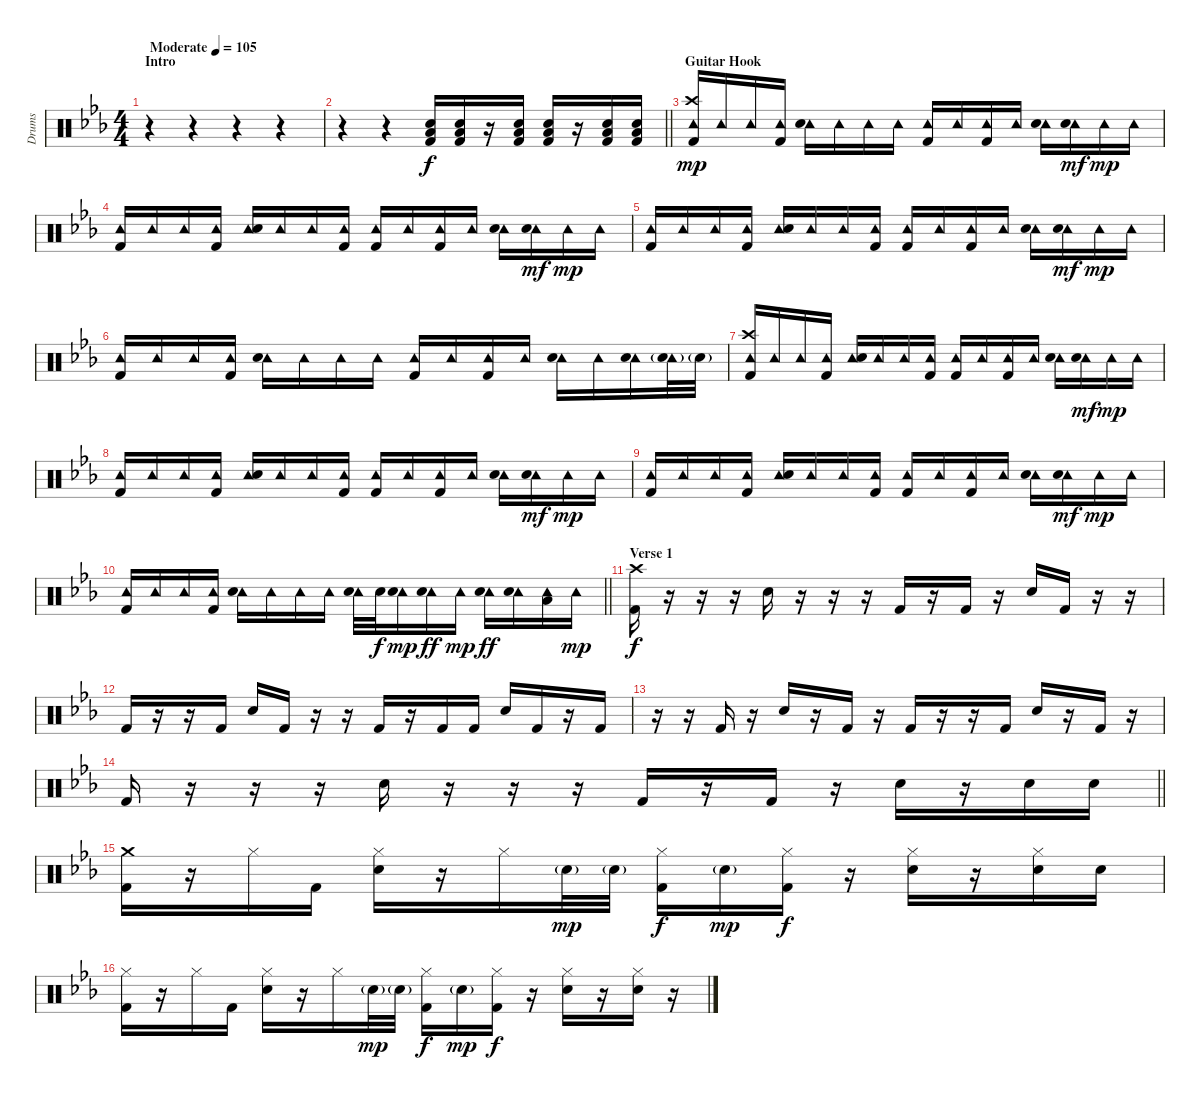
\track ("Drums" "Drums") {instrument percussion}
\staff {score}
\articulation defaults
\ts (4 4)
\section ("" "Intro")
\tempo (105 "Moderate")
\clef neutral
\ks eb
r.4{dy f} r.4 r.4 r.4 |
\barLineRight lightlight
r.4 r.4 ("Low Tom (hit)" "Electric Snare (hit)" "Kick (hit) 2").16 ("Low Tom (hit)" "Electric Snare (hit)" "Kick (hit) 2").16 r.16 ("Low Tom (hit)" "Electric Snare (hit)" "Kick (hit) 2").16 ("Low Tom (hit)" "Electric Snare (hit)" "Kick (hit) 2").16 r.16 ("Low Tom (hit)" "Electric Snare (hit)" "Kick (hit) 2").16 ("Low Tom (hit)" "Electric Snare (hit)" "Kick (hit) 2").16 |
\section ("" "Guitar Hook")
("Crash high (hit)" "Tambourine (hit)" "Kick (hit) 2").16{dy mp} "Tambourine (hit)".16 "Tambourine (hit)".16 ("Tambourine (hit)" "Kick (hit) 2").16 ("Tambourine (hit)" "Electric Snare (hit)").16 "Tambourine (hit)".16 "Tambourine (hit)".16 "Tambourine (hit)".16 ("Tambourine (hit)" "Kick (hit) 2").16 "Tambourine (hit)".16 ("Tambourine (hit)" "Kick (hit) 2").16 "Tambourine (hit)".16 ("Tambourine (hit)" "Electric Snare (hit)").16 ("Tambourine (hit)" "Electric Snare (hit)").16{dy mf} "Tambourine (hit)".16{dy mp} "Tambourine (hit)".16 |
("Tambourine (hit)" "Kick (hit) 2").16 "Tambourine (hit)".16 "Tambourine (hit)".16 ("Tambourine (hit)" "Kick (hit) 2").16 ("Tambourine (hit)" "Electric Snare (hit)").16 "Tambourine (hit)".16 "Tambourine (hit)".16 ("Tambourine (hit)" "Kick (hit) 2").16 ("Tambourine (hit)" "Kick (hit) 2").16 "Tambourine (hit)".16 ("Tambourine (hit)" "Kick (hit) 2").16 "Tambourine (hit)".16 ("Tambourine (hit)" "Electric Snare (hit)").16 ("Tambourine (hit)" "Electric Snare (hit)").16{dy mf} "Tambourine (hit)".16{dy mp} "Tambourine (hit)".16 |
("Tambourine (hit)" "Kick (hit) 2").16 "Tambourine (hit)".16 "Tambourine (hit)".16 ("Tambourine (hit)" "Kick (hit) 2").16 ("Tambourine (hit)" "Electric Snare (hit)").16 "Tambourine (hit)".16 "Tambourine (hit)".16 ("Tambourine (hit)" "Kick (hit) 2").16 ("Tambourine (hit)" "Kick (hit) 2").16 "Tambourine (hit)".16 ("Tambourine (hit)" "Kick (hit) 2").16 "Tambourine (hit)".16 ("Tambourine (hit)" "Electric Snare (hit)").16 ("Tambourine (hit)" "Electric Snare (hit)").16{dy mf} "Tambourine (hit)".16{dy mp} "Tambourine (hit)".16 |
("Tambourine (hit)" "Kick (hit) 2").16 "Tambourine (hit)".16 "Tambourine (hit)".16 ("Tambourine (hit)" "Kick (hit) 2").16 ("Tambourine (hit)" "Electric Snare (hit)").16 "Tambourine (hit)".16 "Tambourine (hit)".16 "Tambourine (hit)".16 ("Tambourine (hit)" "Kick (hit) 2").16 "Tambourine (hit)".16 ("Tambourine (hit)" "Kick (hit) 2").16 "Tambourine (hit)".16 ("Tambourine (hit)" "Electric Snare (hit)").16 "Tambourine (hit)".16 ("Tambourine (hit)" "Electric Snare (hit)").16 ("Tambourine (hit)" "Electric Snare (hit)"{g}).32 "Electric Snare (hit)"{g}.32 |
("Crash high (hit)" "Tambourine (hit)" "Kick (hit) 2").16 "Tambourine (hit)".16 "Tambourine (hit)".16 ("Tambourine (hit)" "Kick (hit) 2").16 ("Tambourine (hit)" "Electric Snare (hit)").16 "Tambourine (hit)".16 "Tambourine (hit)".16 ("Tambourine (hit)" "Kick (hit) 2").16 ("Tambourine (hit)" "Kick (hit) 2").16 "Tambourine (hit)".16 ("Tambourine (hit)" "Kick (hit) 2").16 "Tambourine (hit)".16 ("Tambourine (hit)" "Electric Snare (hit)").16 ("Tambourine (hit)" "Electric Snare (hit)").16{dy mf} "Tambourine (hit)".16{dy mp} "Tambourine (hit)".16 |
("Tambourine (hit)" "Kick (hit) 2").16 "Tambourine (hit)".16 "Tambourine (hit)".16 ("Tambourine (hit)" "Kick (hit) 2").16 ("Tambourine (hit)" "Electric Snare (hit)").16 "Tambourine (hit)".16 "Tambourine (hit)".16 ("Tambourine (hit)" "Kick (hit) 2").16 ("Tambourine (hit)" "Kick (hit) 2").16 "Tambourine (hit)".16 ("Tambourine (hit)" "Kick (hit) 2").16 "Tambourine (hit)".16 ("Tambourine (hit)" "Electric Snare (hit)").16 ("Tambourine (hit)" "Electric Snare (hit)").16{dy mf} "Tambourine (hit)".16{dy mp} "Tambourine (hit)".16 |
("Tambourine (hit)" "Kick (hit) 2").16 "Tambourine (hit)".16 "Tambourine (hit)".16 ("Tambourine (hit)" "Kick (hit) 2").16 ("Tambourine (hit)" "Electric Snare (hit)").16 "Tambourine (hit)".16 "Tambourine (hit)".16 ("Tambourine (hit)" "Kick (hit) 2").16 ("Tambourine (hit)" "Kick (hit) 2").16 "Tambourine (hit)".16 ("Tambourine (hit)" "Kick (hit) 2").16 "Tambourine (hit)".16 ("Tambourine (hit)" "Electric Snare (hit)").16 ("Tambourine (hit)" "Electric Snare (hit)").16{dy mf} "Tambourine (hit)".16{dy mp} "Tambourine (hit)".16 |
\barLineRight lightlight
("Tambourine (hit)" "Kick (hit) 2").16 "Tambourine (hit)".16 "Tambourine (hit)".16 ("Tambourine (hit)" "Kick (hit) 2").16 ("Tambourine (hit)" "Electric Snare (hit)").16 "Tambourine (hit)".16 "Tambourine (hit)".16 "Tambourine (hit)".16 ("Tambourine (hit)" "Electric Snare (hit)").32 "Electric Snare (hit)".32{dy f} ("Tambourine (hit)" "Electric Snare (hit)").16{dy mp} ("Tambourine (hit)" "Electric Snare (hit)").16{dy ff} "Tambourine (hit)".16{dy mp} ("Tambourine (hit)" "Electric Snare (hit)").16{dy ff} ("Tambourine (hit)" "Electric Snare (hit)").16 ("Tambourine (hit)" "Low Tom (hit)").16 "Tambourine (hit)".16{dy mp} |
\section ("" "Verse 1")
("Crash high (hit)" "Kick (hit) 2").16{dy f} r.16 r.16 r.16 "Electric Snare (hit)".16 r.16 r.16 r.16 "Kick (hit) 2".16 r.16 "Kick (hit) 2".16 r.16 "Electric Snare (hit)".16 "Kick (hit) 2".16 r.16 r.16 |
"Kick (hit) 2".16 r.16 r.16 "Kick (hit) 2".16 "Electric Snare (hit)".16 "Kick (hit) 2".16 r.16 r.16 "Kick (hit) 2".16 r.16 "Kick (hit) 2".16 "Kick (hit) 2".16 "Electric Snare (hit)".16 "Kick (hit) 2".16 r.16 "Kick (hit) 2".16 |
r.16 r.16 "Kick (hit) 2".16 r.16 "Electric Snare (hit)".16 r.16 "Kick (hit) 2".16 r.16 "Kick (hit) 2".16 r.16 r.16 "Kick (hit) 2".16 "Electric Snare (hit)".16 r.16 "Kick (hit) 2".16 r.16 |
\barLineRight lightlight "Kick (hit) 2".16
r.16 r.16 r.16 "Electric Snare (hit)".16 r.16 r.16 r.16 "Kick (hit) 2".16 r.16 "Kick (hit) 2".16 r.16 "Electric Snare (hit)".16 r.16 "Electric Snare (hit)".16 "Electric Snare (hit)".16 |
("Crash medium (hit)" "Kick (hit) 2").16 r.16 "Hi-Hat (closed)".16 "Kick (hit) 2".16 ("Hi-Hat (closed)" "Electric Snare (hit)").16 r.16 "Hi-Hat (closed)".16 "Electric Snare (hit)"{g}.32{dy mp} "Electric Snare (hit)"{g}.32 ("Hi-Hat (closed)" "Kick (hit) 2").16{dy f} "Electric Snare (hit)"{g}.16{dy mp} ("Hi-Hat (closed)" "Kick (hit) 2").16{dy f} r.16 ("Hi-Hat (closed)" "Electric Snare (hit)").16 r.16 ("Hi-Hat (closed)" "Electric Snare (hit)").16 "Electric Snare (hit)".16 |
("Hi-Hat (closed)" "Kick (hit) 2").16 r.16 "Hi-Hat (closed)".16 "Kick (hit) 2".16 ("Hi-Hat (closed)" "Electric Snare (hit)").16 r.16 "Hi-Hat (closed)".16 "Electric Snare (hit)"{g}.32{dy mp} "Electric Snare (hit)"{g}.32 ("Hi-Hat (closed)" "Kick (hit) 2").16{dy f} "Electric Snare (hit)"{g}.16{dy mp} ("Hi-Hat (closed)" "Kick (hit) 2").16{dy f} r.16 ("Hi-Hat (closed)" "Electric Snare (hit)").16 r.16 ("Hi-Hat (closed)" "Electric Snare (hit)").16 r.16
